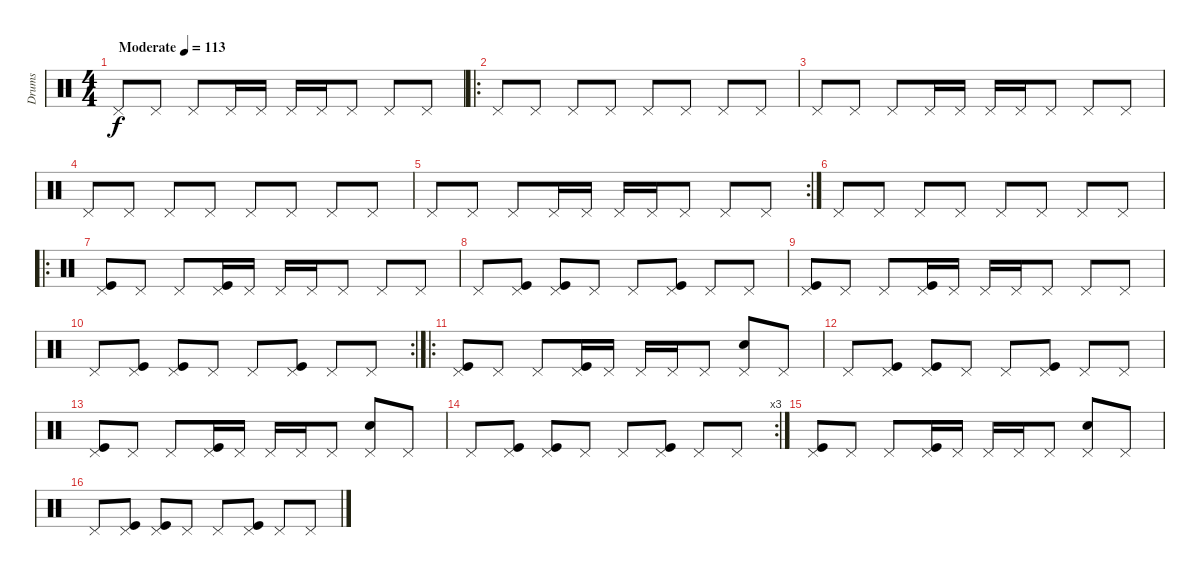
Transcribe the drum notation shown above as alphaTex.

\track ("Drums" "Drums") {instrument percussion}
\staff {score}
\articulation defaults
\ts (4 4)
\tempo (113 "Moderate")
\clef neutral
\ks c "Pedal Hi-Hat (hit)".8{dy f} "Pedal Hi-Hat (hit)".8 "Pedal Hi-Hat (hit)".8 "Pedal Hi-Hat (hit)".16 "Pedal Hi-Hat (hit)".16 "Pedal Hi-Hat (hit)".16 "Pedal Hi-Hat (hit)".16 "Pedal Hi-Hat (hit)".8 "Pedal Hi-Hat (hit)".8 "Pedal Hi-Hat (hit)".8
|
\ro "Pedal Hi-Hat (hit)".8 "Pedal Hi-Hat (hit)".8 "Pedal Hi-Hat (hit)".8 "Pedal Hi-Hat (hit)".8 "Pedal Hi-Hat (hit)".8 "Pedal Hi-Hat (hit)".8 "Pedal Hi-Hat (hit)".8 "Pedal Hi-Hat (hit)".8
|
"Pedal Hi-Hat (hit)".8 "Pedal Hi-Hat (hit)".8 "Pedal Hi-Hat (hit)".8 "Pedal Hi-Hat (hit)".16 "Pedal Hi-Hat (hit)".16 "Pedal Hi-Hat (hit)".16 "Pedal Hi-Hat (hit)".16 "Pedal Hi-Hat (hit)".8 "Pedal Hi-Hat (hit)".8 "Pedal Hi-Hat (hit)".8 |
"Pedal Hi-Hat (hit)".8 "Pedal Hi-Hat (hit)".8 "Pedal Hi-Hat (hit)".8 "Pedal Hi-Hat (hit)".8 "Pedal Hi-Hat (hit)".8 "Pedal Hi-Hat (hit)".8 "Pedal Hi-Hat (hit)".8 "Pedal Hi-Hat (hit)".8 |
\rc 2 "Pedal Hi-Hat (hit)".8 "Pedal Hi-Hat (hit)".8 "Pedal Hi-Hat (hit)".8 "Pedal Hi-Hat (hit)".16 "Pedal Hi-Hat (hit)".16 "Pedal Hi-Hat (hit)".16 "Pedal Hi-Hat (hit)".16 "Pedal Hi-Hat (hit)".8 "Pedal Hi-Hat (hit)".8 "Pedal Hi-Hat (hit)".8
|
"Pedal Hi-Hat (hit)".8 "Pedal Hi-Hat (hit)".8 "Pedal Hi-Hat (hit)".8 "Pedal Hi-Hat (hit)".8 "Pedal Hi-Hat (hit)".8 "Pedal Hi-Hat (hit)".8 "Pedal Hi-Hat (hit)".8 "Pedal Hi-Hat (hit)".8 |
\ro
("Pedal Hi-Hat (hit)" "Kick (hit)").8 "Pedal Hi-Hat (hit)".8 "Pedal Hi-Hat (hit)".8 ("Pedal Hi-Hat (hit)" "Kick (hit)").16 "Pedal Hi-Hat (hit)".16 "Pedal Hi-Hat (hit)".16 "Pedal Hi-Hat (hit)".16 "Pedal Hi-Hat (hit)".8 "Pedal Hi-Hat (hit)".8 "Pedal Hi-Hat (hit)".8 |
"Pedal Hi-Hat (hit)".8 ("Pedal Hi-Hat (hit)" "Kick (hit)").8 ("Pedal Hi-Hat (hit)" "Kick (hit)").8 "Pedal Hi-Hat (hit)".8 "Pedal Hi-Hat (hit)".8 ("Pedal Hi-Hat (hit)" "Kick (hit)").8 "Pedal Hi-Hat (hit)".8 "Pedal Hi-Hat (hit)".8 |
("Pedal Hi-Hat (hit)" "Kick (hit)").8 "Pedal Hi-Hat (hit)".8 "Pedal Hi-Hat (hit)".8 ("Pedal Hi-Hat (hit)" "Kick (hit)").16 "Pedal Hi-Hat (hit)".16 "Pedal Hi-Hat (hit)".16 "Pedal Hi-Hat (hit)".16 "Pedal Hi-Hat (hit)".8 "Pedal Hi-Hat (hit)".8 "Pedal Hi-Hat (hit)".8 |
\rc 2 "Pedal Hi-Hat (hit)".8
("Pedal Hi-Hat (hit)" "Kick (hit)").8 ("Pedal Hi-Hat (hit)" "Kick (hit)").8 "Pedal Hi-Hat (hit)".8 "Pedal Hi-Hat (hit)".8 ("Pedal Hi-Hat (hit)" "Kick (hit)").8 "Pedal Hi-Hat (hit)".8 "Pedal Hi-Hat (hit)".8 |
\ro
("Pedal Hi-Hat (hit)" "Kick (hit)").8 "Pedal Hi-Hat (hit)".8 "Pedal Hi-Hat (hit)".8 ("Pedal Hi-Hat (hit)" "Kick (hit)").16 "Pedal Hi-Hat (hit)".16 "Pedal Hi-Hat (hit)".16 "Pedal Hi-Hat (hit)".16 "Pedal Hi-Hat (hit)".8 ("Pedal Hi-Hat (hit)" "Snare (hit) 2").8 "Pedal Hi-Hat (hit)".8 |
"Pedal Hi-Hat (hit)".8 ("Pedal Hi-Hat (hit)" "Kick (hit)").8 ("Pedal Hi-Hat (hit)" "Kick (hit)").8 "Pedal Hi-Hat (hit)".8 "Pedal Hi-Hat (hit)".8 ("Pedal Hi-Hat (hit)" "Kick (hit)").8 "Pedal Hi-Hat (hit)".8 "Pedal Hi-Hat (hit)".8 |
("Pedal Hi-Hat (hit)" "Kick (hit)").8 "Pedal Hi-Hat (hit)".8 "Pedal Hi-Hat (hit)".8 ("Pedal Hi-Hat (hit)" "Kick (hit)").16 "Pedal Hi-Hat (hit)".16 "Pedal Hi-Hat (hit)".16 "Pedal Hi-Hat (hit)".16 "Pedal Hi-Hat (hit)".8 ("Pedal Hi-Hat (hit)" "Snare (hit) 2").8 "Pedal Hi-Hat (hit)".8 |
\rc 3 "Pedal Hi-Hat (hit)".8
("Pedal Hi-Hat (hit)" "Kick (hit)").8 ("Pedal Hi-Hat (hit)" "Kick (hit)").8 "Pedal Hi-Hat (hit)".8 "Pedal Hi-Hat (hit)".8 ("Pedal Hi-Hat (hit)" "Kick (hit)").8 "Pedal Hi-Hat (hit)".8 "Pedal Hi-Hat (hit)".8 |
("Pedal Hi-Hat (hit)" "Kick (hit)").8 "Pedal Hi-Hat (hit)".8 "Pedal Hi-Hat (hit)".8 ("Pedal Hi-Hat (hit)" "Kick (hit)").16 "Pedal Hi-Hat (hit)".16 "Pedal Hi-Hat (hit)".16 "Pedal Hi-Hat (hit)".16 "Pedal Hi-Hat (hit)".8 ("Pedal Hi-Hat (hit)" "Snare (hit) 2").8 "Pedal Hi-Hat (hit)".8 |
"Pedal Hi-Hat (hit)".8 ("Pedal Hi-Hat (hit)" "Kick (hit)").8 ("Pedal Hi-Hat (hit)" "Kick (hit)").8 "Pedal Hi-Hat (hit)".8 "Pedal Hi-Hat (hit)".8 ("Pedal Hi-Hat (hit)" "Kick (hit)").8 "Pedal Hi-Hat (hit)".8 "Pedal Hi-Hat (hit)".8
